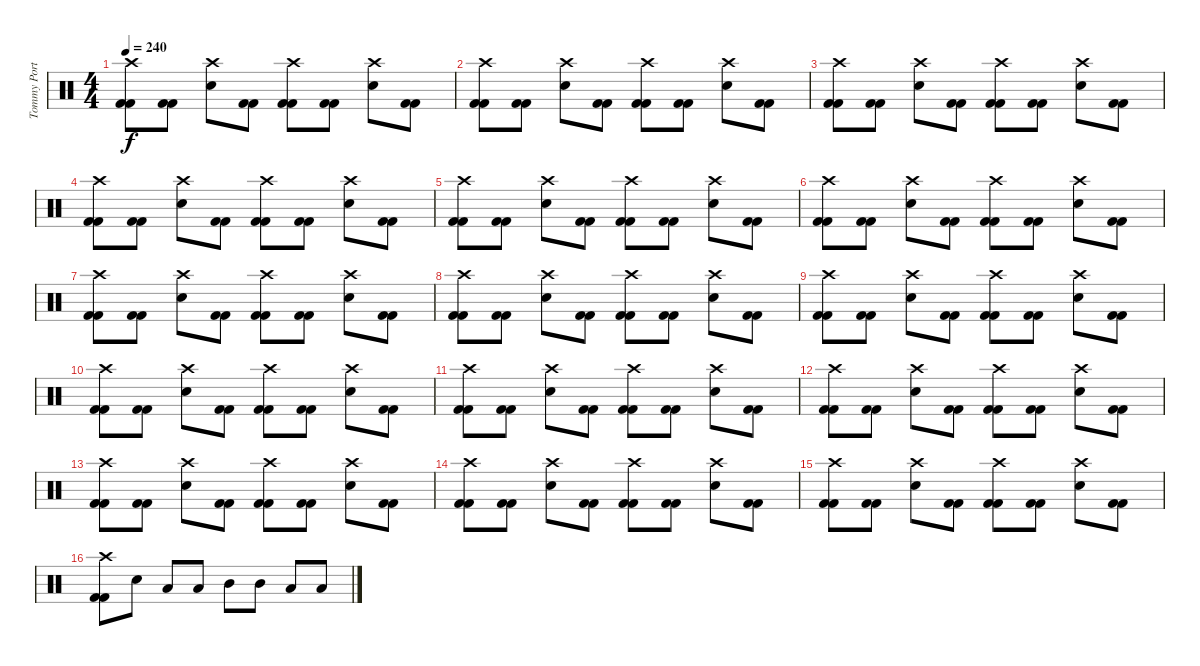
\track ("Tommy Portimo " "Tommy Port") {instrument percussion}
\staff {score}
\articulation defaults
\ts (4 4)
\tempo 240
\clef neutral
\ks c
("Crash high (hit)" "Kick (hit) 2" "Kick (hit) 2").8{dy f} ("Kick (hit) 2" "Kick (hit) 2").8 ("Crash high (hit)" "Electric Snare (hit)").8 ("Kick (hit) 2" "Kick (hit) 2").8 ("Crash high (hit)" "Kick (hit) 2" "Kick (hit) 2").8 ("Kick (hit) 2" "Kick (hit) 2").8 ("Crash high (hit)" "Electric Snare (hit)").8 ("Kick (hit) 2" "Kick (hit) 2").8 |
("Crash high (hit)" "Kick (hit) 2" "Kick (hit) 2").8 ("Kick (hit) 2" "Kick (hit) 2").8 ("Crash high (hit)" "Electric Snare (hit)").8 ("Kick (hit) 2" "Kick (hit) 2").8 ("Crash high (hit)" "Kick (hit) 2" "Kick (hit) 2").8 ("Kick (hit) 2" "Kick (hit) 2").8 ("Crash high (hit)" "Electric Snare (hit)").8 ("Kick (hit) 2" "Kick (hit) 2").8 |
("Crash high (hit)" "Kick (hit) 2" "Kick (hit) 2").8 ("Kick (hit) 2" "Kick (hit) 2").8 ("Crash high (hit)" "Electric Snare (hit)").8 ("Kick (hit) 2" "Kick (hit) 2").8 ("Crash high (hit)" "Kick (hit) 2" "Kick (hit) 2").8 ("Kick (hit) 2" "Kick (hit) 2").8 ("Crash high (hit)" "Electric Snare (hit)").8 ("Kick (hit) 2" "Kick (hit) 2").8 |
("Crash high (hit)" "Kick (hit) 2" "Kick (hit) 2").8 ("Kick (hit) 2" "Kick (hit) 2").8 ("Crash high (hit)" "Electric Snare (hit)").8 ("Kick (hit) 2" "Kick (hit) 2").8 ("Crash high (hit)" "Kick (hit) 2" "Kick (hit) 2").8 ("Kick (hit) 2" "Kick (hit) 2").8 ("Crash high (hit)" "Electric Snare (hit)").8 ("Kick (hit) 2" "Kick (hit) 2").8 |
("Crash high (hit)" "Kick (hit) 2" "Kick (hit) 2").8 ("Kick (hit) 2" "Kick (hit) 2").8 ("Crash high (hit)" "Electric Snare (hit)").8 ("Kick (hit) 2" "Kick (hit) 2").8 ("Crash high (hit)" "Kick (hit) 2" "Kick (hit) 2").8 ("Kick (hit) 2" "Kick (hit) 2").8 ("Crash high (hit)" "Electric Snare (hit)").8 ("Kick (hit) 2" "Kick (hit) 2").8 |
("Crash high (hit)" "Kick (hit) 2" "Kick (hit) 2").8 ("Kick (hit) 2" "Kick (hit) 2").8 ("Crash high (hit)" "Electric Snare (hit)").8 ("Kick (hit) 2" "Kick (hit) 2").8 ("Crash high (hit)" "Kick (hit) 2" "Kick (hit) 2").8 ("Kick (hit) 2" "Kick (hit) 2").8 ("Crash high (hit)" "Electric Snare (hit)").8 ("Kick (hit) 2" "Kick (hit) 2").8 |
("Crash high (hit)" "Kick (hit) 2" "Kick (hit) 2").8 ("Kick (hit) 2" "Kick (hit) 2").8 ("Crash high (hit)" "Electric Snare (hit)").8 ("Kick (hit) 2" "Kick (hit) 2").8 ("Crash high (hit)" "Kick (hit) 2" "Kick (hit) 2").8 ("Kick (hit) 2" "Kick (hit) 2").8 ("Crash high (hit)" "Electric Snare (hit)").8 ("Kick (hit) 2" "Kick (hit) 2").8 |
("Crash high (hit)" "Kick (hit) 2" "Kick (hit) 2").8 ("Kick (hit) 2" "Kick (hit) 2").8 ("Crash high (hit)" "Electric Snare (hit)").8 ("Kick (hit) 2" "Kick (hit) 2").8 ("Crash high (hit)" "Kick (hit) 2" "Kick (hit) 2").8 ("Kick (hit) 2" "Kick (hit) 2").8 ("Crash high (hit)" "Electric Snare (hit)").8 ("Kick (hit) 2" "Kick (hit) 2").8 |
("Crash high (hit)" "Kick (hit) 2" "Kick (hit) 2").8 ("Kick (hit) 2" "Kick (hit) 2").8 ("Crash high (hit)" "Electric Snare (hit)").8 ("Kick (hit) 2" "Kick (hit) 2").8 ("Crash high (hit)" "Kick (hit) 2" "Kick (hit) 2").8 ("Kick (hit) 2" "Kick (hit) 2").8 ("Crash high (hit)" "Electric Snare (hit)").8 ("Kick (hit) 2" "Kick (hit) 2").8 |
("Crash high (hit)" "Kick (hit) 2" "Kick (hit) 2").8 ("Kick (hit) 2" "Kick (hit) 2").8 ("Crash high (hit)" "Electric Snare (hit)").8 ("Kick (hit) 2" "Kick (hit) 2").8 ("Crash high (hit)" "Kick (hit) 2" "Kick (hit) 2").8 ("Kick (hit) 2" "Kick (hit) 2").8 ("Crash high (hit)" "Electric Snare (hit)").8 ("Kick (hit) 2" "Kick (hit) 2").8 |
("Crash high (hit)" "Kick (hit) 2" "Kick (hit) 2").8 ("Kick (hit) 2" "Kick (hit) 2").8 ("Crash high (hit)" "Electric Snare (hit)").8 ("Kick (hit) 2" "Kick (hit) 2").8 ("Crash high (hit)" "Kick (hit) 2" "Kick (hit) 2").8 ("Kick (hit) 2" "Kick (hit) 2").8 ("Crash high (hit)" "Electric Snare (hit)").8 ("Kick (hit) 2" "Kick (hit) 2").8 |
("Crash high (hit)" "Kick (hit) 2" "Kick (hit) 2").8 ("Kick (hit) 2" "Kick (hit) 2").8 ("Crash high (hit)" "Electric Snare (hit)").8 ("Kick (hit) 2" "Kick (hit) 2").8 ("Crash high (hit)" "Kick (hit) 2" "Kick (hit) 2").8 ("Kick (hit) 2" "Kick (hit) 2").8 ("Crash high (hit)" "Electric Snare (hit)").8 ("Kick (hit) 2" "Kick (hit) 2").8 |
("Crash high (hit)" "Kick (hit) 2" "Kick (hit) 2").8 ("Kick (hit) 2" "Kick (hit) 2").8 ("Crash high (hit)" "Electric Snare (hit)").8 ("Kick (hit) 2" "Kick (hit) 2").8 ("Crash high (hit)" "Kick (hit) 2" "Kick (hit) 2").8 ("Kick (hit) 2" "Kick (hit) 2").8 ("Crash high (hit)" "Electric Snare (hit)").8 ("Kick (hit) 2" "Kick (hit) 2").8 |
("Crash high (hit)" "Kick (hit) 2" "Kick (hit) 2").8 ("Kick (hit) 2" "Kick (hit) 2").8 ("Crash high (hit)" "Electric Snare (hit)").8 ("Kick (hit) 2" "Kick (hit) 2").8 ("Crash high (hit)" "Kick (hit) 2" "Kick (hit) 2").8 ("Kick (hit) 2" "Kick (hit) 2").8 ("Crash high (hit)" "Electric Snare (hit)").8 ("Kick (hit) 2" "Kick (hit) 2").8 |
("Crash high (hit)" "Kick (hit) 2" "Kick (hit) 2").8 ("Kick (hit) 2" "Kick (hit) 2").8 ("Crash high (hit)" "Electric Snare (hit)").8 ("Kick (hit) 2" "Kick (hit) 2").8 ("Crash high (hit)" "Kick (hit) 2" "Kick (hit) 2").8 ("Kick (hit) 2" "Kick (hit) 2").8 ("Crash high (hit)" "Electric Snare (hit)").8 ("Kick (hit) 2" "Kick (hit) 2").8 |
("Crash high (hit)" "Kick (hit) 2" "Kick (hit) 2").8 "Electric Snare (hit)".8 "Low Tom (hit)".8 "Low Tom (hit)".8 "Mid Tom (hit)".8 "Mid Tom (hit)".8 "Low Floor Tom (hit)".8 "Low Floor Tom (hit)".8
